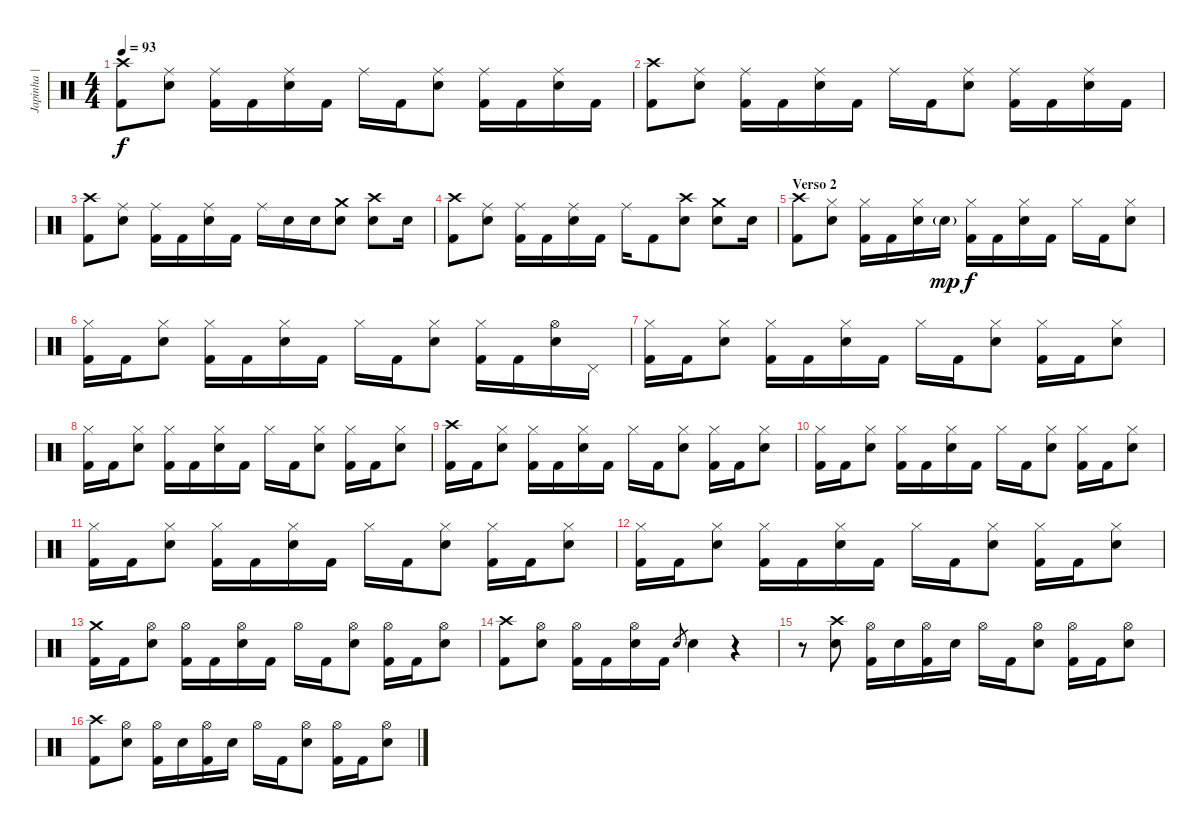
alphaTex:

\track ("Japinha | Bateria" "Japinha | ") {instrument percussion}
\staff {score}
\articulation defaults
\ts (4 4)
\tempo 93
\clef neutral
\ks c
("Crash high (hit)" "Kick (hit) 2").8{dy f} ("Ride (middle)" "Electric Snare (hit)").8 ("Ride (middle)" "Kick (hit) 2").16 "Kick (hit) 2".16 ("Ride (middle)" "Electric Snare (hit)").16 "Kick (hit) 2".16 "Ride (middle)".16 "Kick (hit) 2".16 ("Ride (middle)" "Electric Snare (hit)").8 ("Ride (middle)" "Kick (hit) 2").16 "Kick (hit) 2".16 ("Ride (middle)" "Electric Snare (hit)").16 "Kick (hit) 2".16 |
("Crash high (hit)" "Kick (hit) 2").8 ("Ride (middle)" "Electric Snare (hit)").8 ("Ride (middle)" "Kick (hit) 2").16 "Kick (hit) 2".16 ("Ride (middle)" "Electric Snare (hit)").16 "Kick (hit) 2".16 "Ride (middle)".16 "Kick (hit) 2".16 ("Ride (middle)" "Electric Snare (hit)").8 ("Ride (middle)" "Kick (hit) 2").16 "Kick (hit) 2".16 ("Ride (middle)" "Electric Snare (hit)").16 "Kick (hit) 2".16 |
("Crash high (hit)" "Kick (hit) 2").8 ("Ride (middle)" "Electric Snare (hit)").8 ("Ride (middle)" "Kick (hit) 2").16 "Kick (hit) 2".16 ("Ride (middle)" "Electric Snare (hit)").16 "Kick (hit) 2".16 "Ride (middle)".16 "Electric Snare (hit)".16 "Electric Snare (hit)".16 ("Crash medium (hit)" "Electric Snare (hit)").8 ("Crash high (hit)" "Electric Snare (hit)").8 "Electric Snare (hit)".16 |
("Crash high (hit)" "Kick (hit) 2").8 ("Ride (middle)" "Electric Snare (hit)").8 ("Ride (middle)" "Kick (hit) 2").16 "Kick (hit) 2".16 ("Ride (middle)" "Electric Snare (hit)").16 "Kick (hit) 2".16 "Ride (middle)".16 "Kick (hit) 2".8 ("Crash high (hit)" "Electric Snare (hit)").8 ("Crash medium (hit)" "Electric Snare (hit)").8 "Electric Snare (hit)".16 |
\section ("" "Verso 2")
("Crash high (hit)" "Kick (hit) 2").8 ("Hi-Hat (closed)" "Electric Snare (hit)").8 ("Hi-Hat (closed)" "Kick (hit) 2").16 "Kick (hit) 2".16 ("Hi-Hat (closed)" "Electric Snare (hit)").16 "Electric Snare (hit)"{g}.16{dy mp} ("Hi-Hat (closed)" "Kick (hit) 2").16{dy f} "Kick (hit) 2".16 ("Hi-Hat (closed)" "Electric Snare (hit)").16 "Kick (hit) 2".16 "Hi-Hat (closed)".16 "Kick (hit) 2".16 ("Hi-Hat (closed)" "Electric Snare (hit)").8 |
("Hi-Hat (closed)" "Kick (hit) 2").16 "Kick (hit) 2".16 ("Hi-Hat (closed)" "Electric Snare (hit)").8 ("Hi-Hat (closed)" "Kick (hit) 2").16 "Kick (hit) 2".16 ("Hi-Hat (closed)" "Electric Snare (hit)").16 "Kick (hit) 2".16 "Hi-Hat (closed)".16 "Kick (hit) 2".16 ("Hi-Hat (closed)" "Electric Snare (hit)").8 ("Hi-Hat (closed)" "Kick (hit) 2").16 "Kick (hit) 2".16 ("Hi-Hat (open)" "Electric Snare (hit)").16 "Pedal Hi-Hat (hit)".16 |
("Hi-Hat (closed)" "Kick (hit) 2").16 "Kick (hit) 2".16 ("Hi-Hat (closed)" "Electric Snare (hit)").8 ("Hi-Hat (closed)" "Kick (hit) 2").16 "Kick (hit) 2".16 ("Hi-Hat (closed)" "Electric Snare (hit)").16 "Kick (hit) 2".16 "Hi-Hat (closed)".16 "Kick (hit) 2".16 ("Hi-Hat (closed)" "Electric Snare (hit)").8 ("Hi-Hat (closed)" "Kick (hit) 2").16 "Kick (hit) 2".16 ("Hi-Hat (closed)" "Electric Snare (hit)").8 |
("Hi-Hat (closed)" "Kick (hit) 2").16 "Kick (hit) 2".16 ("Hi-Hat (closed)" "Electric Snare (hit)").8 ("Hi-Hat (closed)" "Kick (hit) 2").16 "Kick (hit) 2".16 ("Hi-Hat (closed)" "Electric Snare (hit)").16 "Kick (hit) 2".16 "Hi-Hat (closed)".16 "Kick (hit) 2".16 ("Hi-Hat (closed)" "Electric Snare (hit)").8 ("Hi-Hat (closed)" "Kick (hit) 2").16 "Kick (hit) 2".16 ("Hi-Hat (closed)" "Electric Snare (hit)").8 |
("Crash high (hit)" "Kick (hit) 2").16 "Kick (hit) 2".16 ("Hi-Hat (closed)" "Electric Snare (hit)").8 ("Hi-Hat (closed)" "Kick (hit) 2").16 "Kick (hit) 2".16 ("Hi-Hat (closed)" "Electric Snare (hit)").16 "Kick (hit) 2".16 "Hi-Hat (closed)".16 "Kick (hit) 2".16 ("Hi-Hat (closed)" "Electric Snare (hit)").8 ("Hi-Hat (closed)" "Kick (hit) 2").16 "Kick (hit) 2".16 ("Hi-Hat (closed)" "Electric Snare (hit)").8 |
("Hi-Hat (closed)" "Kick (hit) 2").16 "Kick (hit) 2".16 ("Hi-Hat (closed)" "Electric Snare (hit)").8 ("Hi-Hat (closed)" "Kick (hit) 2").16 "Kick (hit) 2".16 ("Hi-Hat (closed)" "Electric Snare (hit)").16 "Kick (hit) 2".16 "Hi-Hat (closed)".16 "Kick (hit) 2".16 ("Hi-Hat (closed)" "Electric Snare (hit)").8 ("Hi-Hat (closed)" "Kick (hit) 2").16 "Kick (hit) 2".16 ("Hi-Hat (closed)" "Electric Snare (hit)").8 |
("Hi-Hat (closed)" "Kick (hit) 2").16 "Kick (hit) 2".16 ("Hi-Hat (closed)" "Electric Snare (hit)").8 ("Hi-Hat (closed)" "Kick (hit) 2").16 "Kick (hit) 2".16 ("Hi-Hat (closed)" "Electric Snare (hit)").16 "Kick (hit) 2".16 "Hi-Hat (closed)".16 "Kick (hit) 2".16 ("Hi-Hat (closed)" "Electric Snare (hit)").8 ("Hi-Hat (closed)" "Kick (hit) 2").16 "Kick (hit) 2".16 ("Hi-Hat (closed)" "Electric Snare (hit)").8 |
("Hi-Hat (closed)" "Kick (hit) 2").16 "Kick (hit) 2".16 ("Hi-Hat (closed)" "Electric Snare (hit)").8 ("Hi-Hat (closed)" "Kick (hit) 2").16 "Kick (hit) 2".16 ("Hi-Hat (closed)" "Electric Snare (hit)").16 "Kick (hit) 2".16 "Hi-Hat (closed)".16 "Kick (hit) 2".16 ("Hi-Hat (closed)" "Electric Snare (hit)").8 ("Hi-Hat (closed)" "Kick (hit) 2").16 "Kick (hit) 2".16 ("Hi-Hat (closed)" "Electric Snare (hit)").8 |
("Crash medium (hit)" "Kick (hit) 2").16 "Kick (hit) 2".16 ("Hi-Hat (open)" "Electric Snare (hit)").8 ("Hi-Hat (open)" "Kick (hit) 2").16 "Kick (hit) 2".16 ("Hi-Hat (open)" "Electric Snare (hit)").16 "Kick (hit) 2".16 "Hi-Hat (open)".16 "Kick (hit) 2".16 ("Hi-Hat (open)" "Electric Snare (hit)").8 ("Hi-Hat (open)" "Kick (hit) 2").16 "Kick (hit) 2".16 ("Hi-Hat (open)" "Electric Snare (hit)").8 |
("Crash high (hit)" "Kick (hit) 2").8 ("Hi-Hat (open)" "Electric Snare (hit)").8 ("Hi-Hat (open)" "Kick (hit) 2").16 "Kick (hit) 2".16 ("Hi-Hat (open)" "Electric Snare (hit)").16 "Kick (hit) 2".16 "Electric Snare (hit)".8{gr} "Electric Snare (hit)".4 r.4 |
r.8 ("Crash high (hit)" "Electric Snare (hit)").8 ("Hi-Hat (open)" "Kick (hit) 2").16 "Electric Snare (hit)".16 ("Hi-Hat (open)" "Kick (hit) 2").16 "Electric Snare (hit)".16 "Hi-Hat (open)".16 "Kick (hit) 2".16 ("Hi-Hat (open)" "Electric Snare (hit)").8 ("Hi-Hat (open)" "Kick (hit) 2").16 "Kick (hit) 2".16 ("Hi-Hat (open)" "Electric Snare (hit)").8 |
("Crash high (hit)" "Kick (hit) 2").8 ("Hi-Hat (open)" "Electric Snare (hit)").8 ("Hi-Hat (open)" "Kick (hit) 2").16 "Electric Snare (hit)".16 ("Hi-Hat (open)" "Kick (hit) 2").16 "Electric Snare (hit)".16 "Hi-Hat (open)".16 "Kick (hit) 2".16 ("Hi-Hat (open)" "Electric Snare (hit)").8 ("Hi-Hat (open)" "Kick (hit) 2").16 "Kick (hit) 2".16 ("Hi-Hat (open)" "Electric Snare (hit)").8
